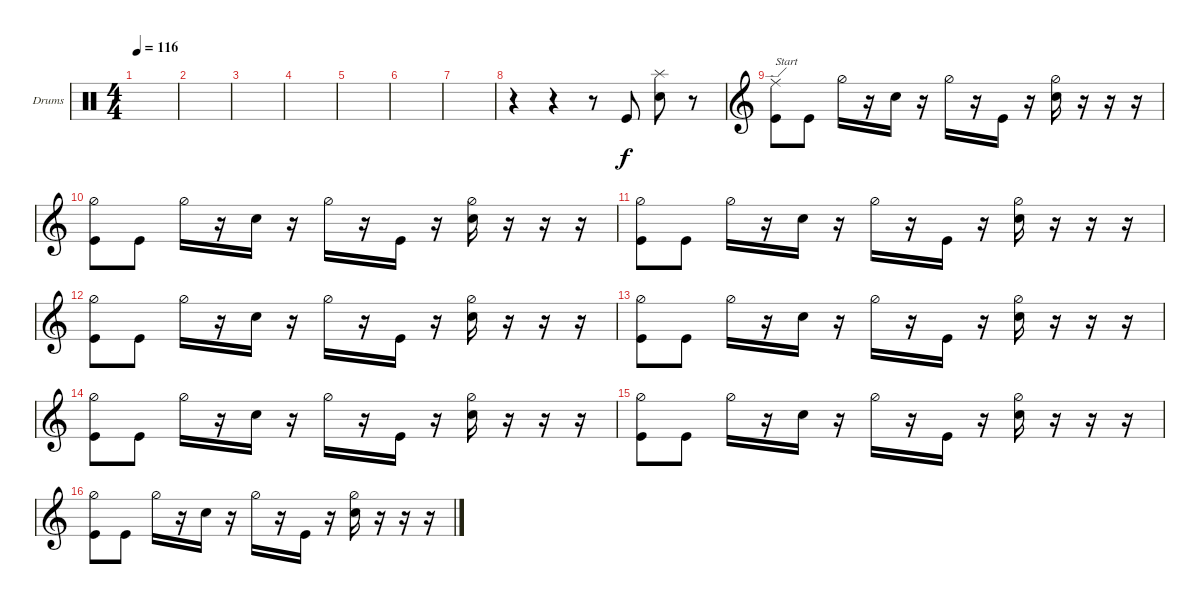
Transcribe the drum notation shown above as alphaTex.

\defaultSystemsLayout 4
\bracketExtendMode groupsimilarinstruments
\firstSystemTrackNameOrientation horizontal
\otherSystemsTrackNameOrientation horizontal
\track ("Drumkit" "Drums") {instrument percussion}
\staff {score}
\articulation defaults
\ts (4 4)
\tempo 116
\clef neutral
\ks c
|
|
|
|
|
|
|
r.4 r.4 r.8 "Kick (hit)".8 ("Snare (hit) 2" "Splash (hit)").8 r.8 |
\clef g2
("Kick (hit)" "Ride (edge)").8{txt "Start"} "Kick (hit)".8 "Hi-Hat (half)".16 r.16 "Snare (hit) 2".16 r.16 "Hi-Hat (half)".16 r.16 "Kick (hit)".16 r.16 ("Snare (hit) 2" "Hi-Hat (half)").16 r.16 r.16 r.16 |
("Kick (hit)" "Hi-Hat (half)").8 "Kick (hit)".8 "Hi-Hat (half)".16 r.16 "Snare (hit) 2".16 r.16 "Hi-Hat (half)".16 r.16 "Kick (hit)".16 r.16 ("Snare (hit) 2" "Hi-Hat (half)").16 r.16 r.16 r.16 |
("Kick (hit)" "Hi-Hat (half)").8 "Kick (hit)".8 "Hi-Hat (half)".16 r.16 "Snare (hit) 2".16 r.16 "Hi-Hat (half)".16 r.16 "Kick (hit)".16 r.16 ("Snare (hit) 2" "Hi-Hat (half)").16 r.16 r.16 r.16 |
("Kick (hit)" "Hi-Hat (half)").8 "Kick (hit)".8 "Hi-Hat (half)".16 r.16 "Snare (hit) 2".16 r.16 "Hi-Hat (half)".16 r.16 "Kick (hit)".16 r.16 ("Snare (hit) 2" "Hi-Hat (half)").16 r.16 r.16 r.16 |
("Kick (hit)" "Hi-Hat (half)").8 "Kick (hit)".8 "Hi-Hat (half)".16 r.16 "Snare (hit) 2".16 r.16 "Hi-Hat (half)".16 r.16 "Kick (hit)".16 r.16 ("Snare (hit) 2" "Hi-Hat (half)").16 r.16 r.16 r.16 |
("Kick (hit)" "Hi-Hat (half)").8 "Kick (hit)".8 "Hi-Hat (half)".16 r.16 "Snare (hit) 2".16 r.16 "Hi-Hat (half)".16 r.16 "Kick (hit)".16 r.16 ("Snare (hit) 2" "Hi-Hat (half)").16 r.16 r.16 r.16 |
("Kick (hit)" "Hi-Hat (half)").8 "Kick (hit)".8 "Hi-Hat (half)".16 r.16 "Snare (hit) 2".16 r.16 "Hi-Hat (half)".16 r.16 "Kick (hit)".16 r.16 ("Snare (hit) 2" "Hi-Hat (half)").16 r.16 r.16 r.16 |
("Kick (hit)" "Hi-Hat (half)").8 "Kick (hit)".8 "Hi-Hat (half)".16 r.16 "Snare (hit) 2".16 r.16 "Hi-Hat (half)".16 r.16 "Kick (hit)".16 r.16 ("Snare (hit) 2" "Hi-Hat (half)").16 r.16 r.16 r.16
